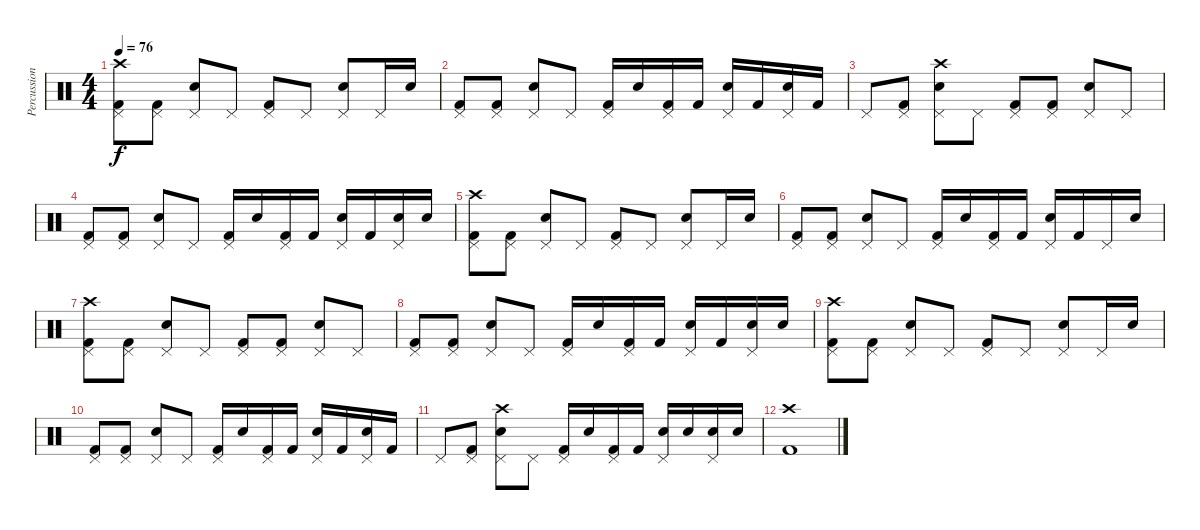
\track ("Percussion" "Percussion") {instrument percussion}
\staff {score}
\articulation defaults
\ts (4 4)
\tempo 76
\clef neutral
\ks c
("Crash high (hit)" "Pedal Hi-Hat (hit)" "Kick (hit) 2").8{dy f} ("Pedal Hi-Hat (hit)" "Kick (hit) 2").8 ("Pedal Hi-Hat (hit)" "Snare (hit) 2").8 "Pedal Hi-Hat (hit)".8 ("Pedal Hi-Hat (hit)" "Kick (hit) 2").8 "Pedal Hi-Hat (hit)".8 ("Pedal Hi-Hat (hit)" "Snare (hit) 2").8 "Pedal Hi-Hat (hit)".16 "Snare (hit) 2".16 |
("Pedal Hi-Hat (hit)" "Kick (hit) 2").8 ("Pedal Hi-Hat (hit)" "Kick (hit) 2").8 ("Pedal Hi-Hat (hit)" "Snare (hit) 2").8 "Pedal Hi-Hat (hit)".8 ("Pedal Hi-Hat (hit)" "Kick (hit) 2").16 "Snare (hit) 2".16 ("Pedal Hi-Hat (hit)" "Kick (hit) 2").16 "Kick (hit) 2".16 ("Pedal Hi-Hat (hit)" "Snare (hit) 2").16 "Kick (hit) 2".16 ("Pedal Hi-Hat (hit)" "Snare (hit) 2").16 "Kick (hit) 2".16 |
"Pedal Hi-Hat (hit)".8 ("Pedal Hi-Hat (hit)" "Kick (hit) 2").8 ("Crash high (hit)" "Pedal Hi-Hat (hit)" "Snare (hit) 2").8 "Pedal Hi-Hat (hit)".8 ("Pedal Hi-Hat (hit)" "Kick (hit) 2").8 ("Pedal Hi-Hat (hit)" "Kick (hit) 2").8 ("Pedal Hi-Hat (hit)" "Snare (hit) 2").8 "Pedal Hi-Hat (hit)".8 |
("Pedal Hi-Hat (hit)" "Kick (hit) 2").8 ("Pedal Hi-Hat (hit)" "Kick (hit) 2").8 ("Pedal Hi-Hat (hit)" "Snare (hit) 2").8 "Pedal Hi-Hat (hit)".8 ("Pedal Hi-Hat (hit)" "Kick (hit) 2").16 "Snare (hit) 2".16 ("Pedal Hi-Hat (hit)" "Kick (hit) 2").16 "Kick (hit) 2".16 ("Pedal Hi-Hat (hit)" "Snare (hit) 2").16 "Kick (hit) 2".16 ("Pedal Hi-Hat (hit)" "Snare (hit) 2").16 "Snare (hit) 2".16 |
("Crash high (hit)" "Pedal Hi-Hat (hit)" "Kick (hit) 2").8 ("Pedal Hi-Hat (hit)" "Kick (hit) 2").8 ("Pedal Hi-Hat (hit)" "Snare (hit) 2").8 "Pedal Hi-Hat (hit)".8 ("Pedal Hi-Hat (hit)" "Kick (hit) 2").8 "Pedal Hi-Hat (hit)".8 ("Pedal Hi-Hat (hit)" "Snare (hit) 2").8 "Pedal Hi-Hat (hit)".16 "Snare (hit) 2".16 |
("Pedal Hi-Hat (hit)" "Kick (hit) 2").8 ("Pedal Hi-Hat (hit)" "Kick (hit) 2").8 ("Pedal Hi-Hat (hit)" "Snare (hit) 2").8 "Pedal Hi-Hat (hit)".8 ("Pedal Hi-Hat (hit)" "Kick (hit) 2").16 "Snare (hit) 2".16 ("Pedal Hi-Hat (hit)" "Kick (hit) 2").16 "Kick (hit) 2".16 ("Pedal Hi-Hat (hit)" "Snare (hit) 2").16 "Kick (hit) 2".16 "Pedal Hi-Hat (hit)".16 "Snare (hit) 2".16 |
("Crash high (hit)" "Pedal Hi-Hat (hit)" "Kick (hit) 2").8 ("Pedal Hi-Hat (hit)" "Kick (hit) 2").8 ("Pedal Hi-Hat (hit)" "Snare (hit) 2").8 "Pedal Hi-Hat (hit)".8 ("Pedal Hi-Hat (hit)" "Kick (hit) 2").8 ("Pedal Hi-Hat (hit)" "Kick (hit) 2").8 ("Pedal Hi-Hat (hit)" "Snare (hit) 2").8 "Pedal Hi-Hat (hit)".8 |
("Pedal Hi-Hat (hit)" "Kick (hit) 2").8 ("Pedal Hi-Hat (hit)" "Kick (hit) 2").8 ("Pedal Hi-Hat (hit)" "Snare (hit) 2").8 "Pedal Hi-Hat (hit)".8 ("Pedal Hi-Hat (hit)" "Kick (hit) 2").16 "Snare (hit) 2".16 ("Pedal Hi-Hat (hit)" "Kick (hit) 2").16 "Kick (hit) 2".16 ("Pedal Hi-Hat (hit)" "Snare (hit) 2").16 "Kick (hit) 2".16 ("Pedal Hi-Hat (hit)" "Snare (hit) 2").16 "Snare (hit) 2".16 |
("Crash high (hit)" "Pedal Hi-Hat (hit)" "Kick (hit) 2").8 ("Pedal Hi-Hat (hit)" "Kick (hit) 2").8 ("Pedal Hi-Hat (hit)" "Snare (hit) 2").8 "Pedal Hi-Hat (hit)".8 ("Pedal Hi-Hat (hit)" "Kick (hit) 2").8 "Pedal Hi-Hat (hit)".8 ("Pedal Hi-Hat (hit)" "Snare (hit) 2").8 "Pedal Hi-Hat (hit)".16 "Snare (hit) 2".16 |
("Pedal Hi-Hat (hit)" "Kick (hit) 2").8 ("Pedal Hi-Hat (hit)" "Kick (hit) 2").8 ("Pedal Hi-Hat (hit)" "Snare (hit) 2").8 "Pedal Hi-Hat (hit)".8 ("Pedal Hi-Hat (hit)" "Kick (hit) 2").16 "Snare (hit) 2".16 ("Pedal Hi-Hat (hit)" "Kick (hit) 2").16 "Kick (hit) 2".16 ("Pedal Hi-Hat (hit)" "Snare (hit) 2").16 "Kick (hit) 2".16 ("Pedal Hi-Hat (hit)" "Snare (hit) 2").16 "Kick (hit) 2".16 |
"Pedal Hi-Hat (hit)".8 ("Pedal Hi-Hat (hit)" "Kick (hit) 2").8 ("Crash high (hit)" "Pedal Hi-Hat (hit)" "Snare (hit) 2").8 "Pedal Hi-Hat (hit)".8 ("Pedal Hi-Hat (hit)" "Kick (hit) 2").16 "Snare (hit) 2".16 ("Pedal Hi-Hat (hit)" "Kick (hit) 2").16 "Kick (hit) 2".16 ("Pedal Hi-Hat (hit)" "Snare (hit) 2").16 "Snare (hit) 2".16 ("Pedal Hi-Hat (hit)" "Snare (hit) 2").16 "Snare (hit) 2".16 |
("Crash high (hit)" "Kick (hit) 2").1
